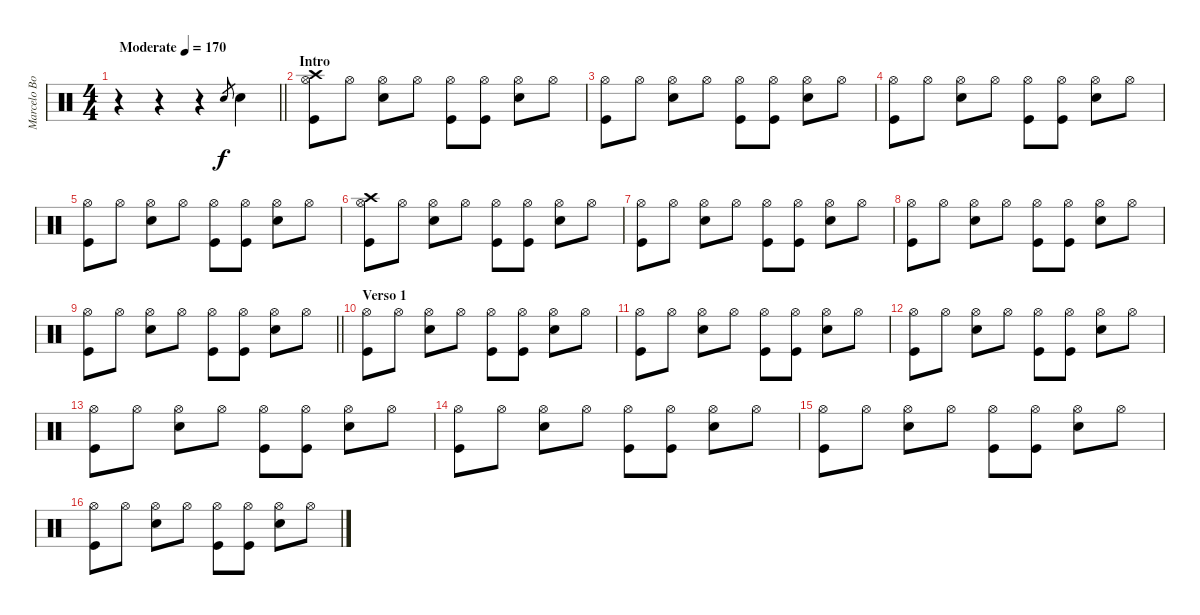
\track ("Marcelo Bonfá" "Marcelo Bo") {instrument percussion}
\staff {score}
\articulation defaults
\ts (4 4)
\tempo (170 "Moderate")
\clef neutral
\barLineRight lightlight
\ks c
r.4{dy f} r.4 r.4 "Snare (hit) 2".8{gr} "Snare (hit) 2".4 |
\section ("" "Intro")
("Crash high (hit)" "Hi-Hat (open)" "Kick (hit)").8 "Hi-Hat (open)".8 ("Hi-Hat (open)" "Snare (hit) 2").8 "Hi-Hat (open)".8 ("Hi-Hat (open)" "Kick (hit)").8 ("Hi-Hat (open)" "Kick (hit)").8 ("Hi-Hat (open)" "Snare (hit) 2").8 "Hi-Hat (open)".8 |
("Hi-Hat (open)" "Kick (hit)").8 "Hi-Hat (open)".8 ("Hi-Hat (open)" "Snare (hit) 2").8 "Hi-Hat (open)".8 ("Hi-Hat (open)" "Kick (hit)").8 ("Hi-Hat (open)" "Kick (hit)").8 ("Hi-Hat (open)" "Snare (hit) 2").8 "Hi-Hat (open)".8 |
("Hi-Hat (open)" "Kick (hit)").8 "Hi-Hat (open)".8 ("Hi-Hat (open)" "Snare (hit) 2").8 "Hi-Hat (open)".8 ("Hi-Hat (open)" "Kick (hit)").8 ("Hi-Hat (open)" "Kick (hit)").8 ("Hi-Hat (open)" "Snare (hit) 2").8 "Hi-Hat (open)".8 |
("Hi-Hat (open)" "Kick (hit)").8 "Hi-Hat (open)".8 ("Hi-Hat (open)" "Snare (hit) 2").8 "Hi-Hat (open)".8 ("Hi-Hat (open)" "Kick (hit)").8 ("Hi-Hat (open)" "Kick (hit)").8 ("Hi-Hat (open)" "Snare (hit) 2").8 "Hi-Hat (open)".8 |
("Crash high (hit)" "Hi-Hat (open)" "Kick (hit)").8 "Hi-Hat (open)".8 ("Hi-Hat (open)" "Snare (hit) 2").8 "Hi-Hat (open)".8 ("Hi-Hat (open)" "Kick (hit)").8 ("Hi-Hat (open)" "Kick (hit)").8 ("Hi-Hat (open)" "Snare (hit) 2").8 "Hi-Hat (open)".8 |
("Hi-Hat (open)" "Kick (hit)").8 "Hi-Hat (open)".8 ("Hi-Hat (open)" "Snare (hit) 2").8 "Hi-Hat (open)".8 ("Hi-Hat (open)" "Kick (hit)").8 ("Hi-Hat (open)" "Kick (hit)").8 ("Hi-Hat (open)" "Snare (hit) 2").8 "Hi-Hat (open)".8 |
("Hi-Hat (open)" "Kick (hit)").8 "Hi-Hat (open)".8 ("Hi-Hat (open)" "Snare (hit) 2").8 "Hi-Hat (open)".8 ("Hi-Hat (open)" "Kick (hit)").8 ("Hi-Hat (open)" "Kick (hit)").8 ("Hi-Hat (open)" "Snare (hit) 2").8 "Hi-Hat (open)".8 |
\barLineRight lightlight
("Hi-Hat (open)" "Kick (hit)").8 "Hi-Hat (open)".8 ("Hi-Hat (open)" "Snare (hit) 2").8 "Hi-Hat (open)".8 ("Hi-Hat (open)" "Kick (hit)").8 ("Hi-Hat (open)" "Kick (hit)").8 ("Hi-Hat (open)" "Snare (hit) 2").8 "Hi-Hat (open)".8 |
\section ("" "Verso 1")
("Hi-Hat (open)" "Kick (hit)").8 "Hi-Hat (open)".8 ("Hi-Hat (open)" "Snare (hit) 2").8 "Hi-Hat (open)".8 ("Hi-Hat (open)" "Kick (hit)").8 ("Hi-Hat (open)" "Kick (hit)").8 ("Hi-Hat (open)" "Snare (hit) 2").8 "Hi-Hat (open)".8 |
("Hi-Hat (open)" "Kick (hit)").8 "Hi-Hat (open)".8 ("Hi-Hat (open)" "Snare (hit) 2").8 "Hi-Hat (open)".8 ("Hi-Hat (open)" "Kick (hit)").8 ("Hi-Hat (open)" "Kick (hit)").8 ("Hi-Hat (open)" "Snare (hit) 2").8 "Hi-Hat (open)".8 |
("Hi-Hat (open)" "Kick (hit)").8 "Hi-Hat (open)".8 ("Hi-Hat (open)" "Snare (hit) 2").8 "Hi-Hat (open)".8 ("Hi-Hat (open)" "Kick (hit)").8 ("Hi-Hat (open)" "Kick (hit)").8 ("Hi-Hat (open)" "Snare (hit) 2").8 "Hi-Hat (open)".8 |
("Hi-Hat (open)" "Kick (hit)").8 "Hi-Hat (open)".8 ("Hi-Hat (open)" "Snare (hit) 2").8 "Hi-Hat (open)".8 ("Hi-Hat (open)" "Kick (hit)").8 ("Hi-Hat (open)" "Kick (hit)").8 ("Hi-Hat (open)" "Snare (hit) 2").8 "Hi-Hat (open)".8 |
("Hi-Hat (open)" "Kick (hit)").8 "Hi-Hat (open)".8 ("Hi-Hat (open)" "Snare (hit) 2").8 "Hi-Hat (open)".8 ("Hi-Hat (open)" "Kick (hit)").8 ("Hi-Hat (open)" "Kick (hit)").8 ("Hi-Hat (open)" "Snare (hit) 2").8 "Hi-Hat (open)".8 |
("Hi-Hat (open)" "Kick (hit)").8 "Hi-Hat (open)".8 ("Hi-Hat (open)" "Snare (hit) 2").8 "Hi-Hat (open)".8 ("Hi-Hat (open)" "Kick (hit)").8 ("Hi-Hat (open)" "Kick (hit)").8 ("Hi-Hat (open)" "Snare (hit) 2").8 "Hi-Hat (open)".8 |
("Hi-Hat (open)" "Kick (hit)").8 "Hi-Hat (open)".8 ("Hi-Hat (open)" "Snare (hit) 2").8 "Hi-Hat (open)".8 ("Hi-Hat (open)" "Kick (hit)").8 ("Hi-Hat (open)" "Kick (hit)").8 ("Hi-Hat (open)" "Snare (hit) 2").8 "Hi-Hat (open)".8
